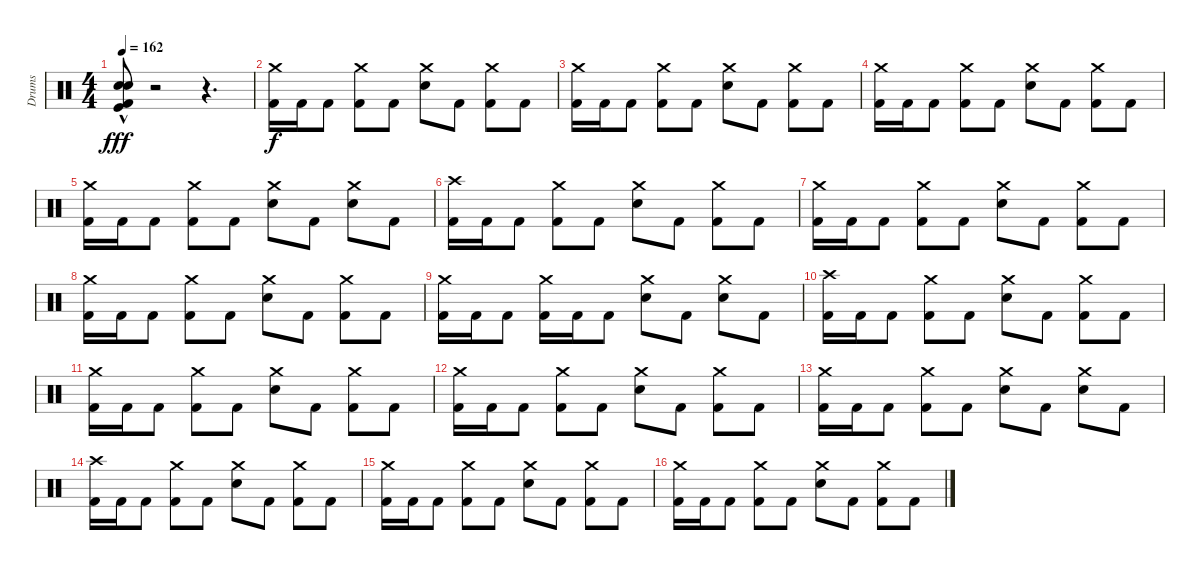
\track ("Drums" "Drums") {instrument percussion}
\staff {score}
\articulation defaults
\ts (4 4)
\tempo 162
\clef neutral
\ks c
("Electric Snare (hit)"{hac} "Electric Snare (hit)"{hac} "Kick (hit)" "Kick (hit) 2").8{dy fff} r.2 r.4{d} |
("Crash medium (hit)" "Kick (hit) 2").16{dy f} "Kick (hit) 2".16 "Kick (hit) 2".8 ("Crash medium (hit)" "Kick (hit) 2").8 "Kick (hit) 2".8 ("Crash medium (hit)" "Electric Snare (hit)").8 "Kick (hit) 2".8 ("Crash medium (hit)" "Kick (hit) 2").8 "Kick (hit) 2".8 |
("Crash medium (hit)" "Kick (hit) 2").16 "Kick (hit) 2".16 "Kick (hit) 2".8 ("Crash medium (hit)" "Kick (hit) 2").8 "Kick (hit) 2".8 ("Crash medium (hit)" "Electric Snare (hit)").8 "Kick (hit) 2".8 ("Crash medium (hit)" "Kick (hit) 2").8 "Kick (hit) 2".8 |
("Crash medium (hit)" "Kick (hit) 2").16 "Kick (hit) 2".16 "Kick (hit) 2".8 ("Crash medium (hit)" "Kick (hit) 2").8 "Kick (hit) 2".8 ("Crash medium (hit)" "Electric Snare (hit)").8 "Kick (hit) 2".8 ("Crash medium (hit)" "Kick (hit) 2").8 "Kick (hit) 2".8 |
("Crash medium (hit)" "Kick (hit) 2").16 "Kick (hit) 2".16 "Kick (hit) 2".8 ("Crash medium (hit)" "Kick (hit) 2").8 "Kick (hit) 2".8 ("Crash medium (hit)" "Electric Snare (hit)").8 "Kick (hit) 2".8 ("Crash medium (hit)" "Electric Snare (hit)").8 "Kick (hit) 2".8 |
("Crash high (hit)" "Kick (hit) 2").16 "Kick (hit) 2".16 "Kick (hit) 2".8 ("Crash medium (hit)" "Kick (hit) 2").8 "Kick (hit) 2".8 ("Crash medium (hit)" "Electric Snare (hit)").8 "Kick (hit) 2".8 ("Crash medium (hit)" "Kick (hit) 2").8 "Kick (hit) 2".8 |
("Crash medium (hit)" "Kick (hit) 2").16 "Kick (hit) 2".16 "Kick (hit) 2".8 ("Crash medium (hit)" "Kick (hit) 2").8 "Kick (hit) 2".8 ("Crash medium (hit)" "Electric Snare (hit)").8 "Kick (hit) 2".8 ("Crash medium (hit)" "Kick (hit) 2").8 "Kick (hit) 2".8 |
("Crash medium (hit)" "Kick (hit) 2").16 "Kick (hit) 2".16 "Kick (hit) 2".8 ("Crash medium (hit)" "Kick (hit) 2").8 "Kick (hit) 2".8 ("Crash medium (hit)" "Electric Snare (hit)").8 "Kick (hit) 2".8 ("Crash medium (hit)" "Kick (hit) 2").8 "Kick (hit) 2".8 |
("Crash medium (hit)" "Kick (hit) 2").16 "Kick (hit) 2".16 "Kick (hit) 2".8 ("Crash medium (hit)" "Kick (hit) 2").16 "Kick (hit) 2".16 "Kick (hit) 2".8 ("Crash medium (hit)" "Electric Snare (hit)").8 "Kick (hit) 2".8 ("Crash medium (hit)" "Electric Snare (hit)").8 "Kick (hit) 2".8 |
("Crash high (hit)" "Kick (hit) 2").16 "Kick (hit) 2".16 "Kick (hit) 2".8 ("Crash medium (hit)" "Kick (hit) 2").8 "Kick (hit) 2".8 ("Crash medium (hit)" "Electric Snare (hit)").8 "Kick (hit) 2".8 ("Crash medium (hit)" "Kick (hit) 2").8 "Kick (hit) 2".8 |
("Crash medium (hit)" "Kick (hit) 2").16 "Kick (hit) 2".16 "Kick (hit) 2".8 ("Crash medium (hit)" "Kick (hit) 2").8 "Kick (hit) 2".8 ("Crash medium (hit)" "Electric Snare (hit)").8 "Kick (hit) 2".8 ("Crash medium (hit)" "Kick (hit) 2").8 "Kick (hit) 2".8 |
("Crash medium (hit)" "Kick (hit) 2").16 "Kick (hit) 2".16 "Kick (hit) 2".8 ("Crash medium (hit)" "Kick (hit) 2").8 "Kick (hit) 2".8 ("Crash medium (hit)" "Electric Snare (hit)").8 "Kick (hit) 2".8 ("Crash medium (hit)" "Kick (hit) 2").8 "Kick (hit) 2".8 |
("Crash medium (hit)" "Kick (hit) 2").16 "Kick (hit) 2".16 "Kick (hit) 2".8 ("Crash medium (hit)" "Kick (hit) 2").8 "Kick (hit) 2".8 ("Crash medium (hit)" "Electric Snare (hit)").8 "Kick (hit) 2".8 ("Crash medium (hit)" "Electric Snare (hit)").8 "Kick (hit) 2".8 |
("Crash high (hit)" "Kick (hit) 2").16 "Kick (hit) 2".16 "Kick (hit) 2".8 ("Crash medium (hit)" "Kick (hit) 2").8 "Kick (hit) 2".8 ("Crash medium (hit)" "Electric Snare (hit)").8 "Kick (hit) 2".8 ("Crash medium (hit)" "Kick (hit) 2").8 "Kick (hit) 2".8 |
("Crash medium (hit)" "Kick (hit) 2").16 "Kick (hit) 2".16 "Kick (hit) 2".8 ("Crash medium (hit)" "Kick (hit) 2").8 "Kick (hit) 2".8 ("Crash medium (hit)" "Electric Snare (hit)").8 "Kick (hit) 2".8 ("Crash medium (hit)" "Kick (hit) 2").8 "Kick (hit) 2".8 |
("Crash medium (hit)" "Kick (hit) 2").16 "Kick (hit) 2".16 "Kick (hit) 2".8 ("Crash medium (hit)" "Kick (hit) 2").8 "Kick (hit) 2".8 ("Crash medium (hit)" "Electric Snare (hit)").8 "Kick (hit) 2".8 ("Crash medium (hit)" "Kick (hit) 2").8 "Kick (hit) 2".8
